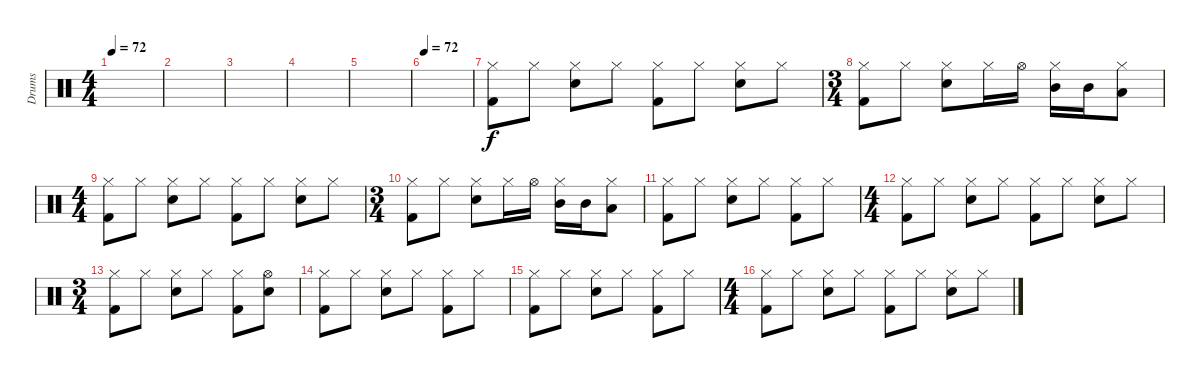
\track ("Drums" "Drums") {instrument percussion}
\staff {score}
\articulation defaults
\ts (4 4)
\tempo 72
\tempo 48
\tempo 72
\clef neutral
\ks c
|
|
|
|
|
\tempo 72
|
("Hi-Hat (closed)" "Kick (hit) 2").8 "Hi-Hat (closed)".8 ("Hi-Hat (closed)" "Electric Snare (hit)").8 "Hi-Hat (closed)".8 ("Hi-Hat (closed)" "Kick (hit) 2").8 "Hi-Hat (closed)".8 ("Hi-Hat (closed)" "Electric Snare (hit)").8 "Hi-Hat (closed)".8 |
\ts (3 4)
("Hi-Hat (closed)" "Kick (hit) 2").8 "Hi-Hat (closed)".8 ("Hi-Hat (closed)" "Electric Snare (hit)").8 "Hi-Hat (closed)".16 "Hi-Hat (open)".16 ("Hi-Hat (closed)" "Mid Tom (hit)").16 "Mid Tom (hit)".16 ("Hi-Hat (closed)" "Low Tom (hit)").8 |
\ts (4 4)
("Hi-Hat (closed)" "Kick (hit) 2").8 "Hi-Hat (closed)".8 ("Hi-Hat (closed)" "Electric Snare (hit)").8 "Hi-Hat (closed)".8 ("Hi-Hat (closed)" "Kick (hit) 2").8 "Hi-Hat (closed)".8 ("Hi-Hat (closed)" "Electric Snare (hit)").8 "Hi-Hat (closed)".8 |
\ts (3 4)
("Hi-Hat (closed)" "Kick (hit) 2").8 "Hi-Hat (closed)".8 ("Hi-Hat (closed)" "Electric Snare (hit)").8 "Hi-Hat (closed)".16 "Hi-Hat (open)".16 ("Hi-Hat (closed)" "Mid Tom (hit)").16 "Mid Tom (hit)".16 ("Hi-Hat (closed)" "Low Tom (hit)").8 |
("Hi-Hat (closed)" "Kick (hit) 2").8 "Hi-Hat (closed)".8 ("Hi-Hat (closed)" "Electric Snare (hit)").8 "Hi-Hat (closed)".8 ("Hi-Hat (closed)" "Kick (hit) 2").8 "Hi-Hat (closed)".8 |
\ts (4 4)
("Hi-Hat (closed)" "Kick (hit) 2").8 "Hi-Hat (closed)".8 ("Hi-Hat (closed)" "Electric Snare (hit)").8 "Hi-Hat (closed)".8 ("Hi-Hat (closed)" "Kick (hit) 2").8 "Hi-Hat (closed)".8 ("Hi-Hat (closed)" "Electric Snare (hit)").8 "Hi-Hat (closed)".8 |
\ts (3 4)
("Hi-Hat (closed)" "Kick (hit) 2").8 "Hi-Hat (closed)".8 ("Hi-Hat (closed)" "Electric Snare (hit)").8 "Hi-Hat (closed)".8 ("Hi-Hat (closed)" "Kick (hit) 2").8 ("Hi-Hat (open)" "Electric Snare (hit)").8 |
("Hi-Hat (closed)" "Kick (hit) 2").8 "Hi-Hat (closed)".8 ("Hi-Hat (closed)" "Electric Snare (hit)").8 "Hi-Hat (closed)".8 ("Hi-Hat (closed)" "Kick (hit) 2").8 "Hi-Hat (closed)".8 |
("Hi-Hat (closed)" "Kick (hit) 2").8 "Hi-Hat (closed)".8 ("Hi-Hat (closed)" "Electric Snare (hit)").8 "Hi-Hat (closed)".8 ("Hi-Hat (closed)" "Kick (hit) 2").8 "Hi-Hat (closed)".8 |
\ts (4 4)
("Hi-Hat (closed)" "Kick (hit) 2").8 "Hi-Hat (closed)".8 ("Hi-Hat (closed)" "Electric Snare (hit)").8 "Hi-Hat (closed)".8 ("Hi-Hat (closed)" "Kick (hit) 2").8 "Hi-Hat (closed)".8 ("Hi-Hat (closed)" "Electric Snare (hit)").8 "Hi-Hat (closed)".8
